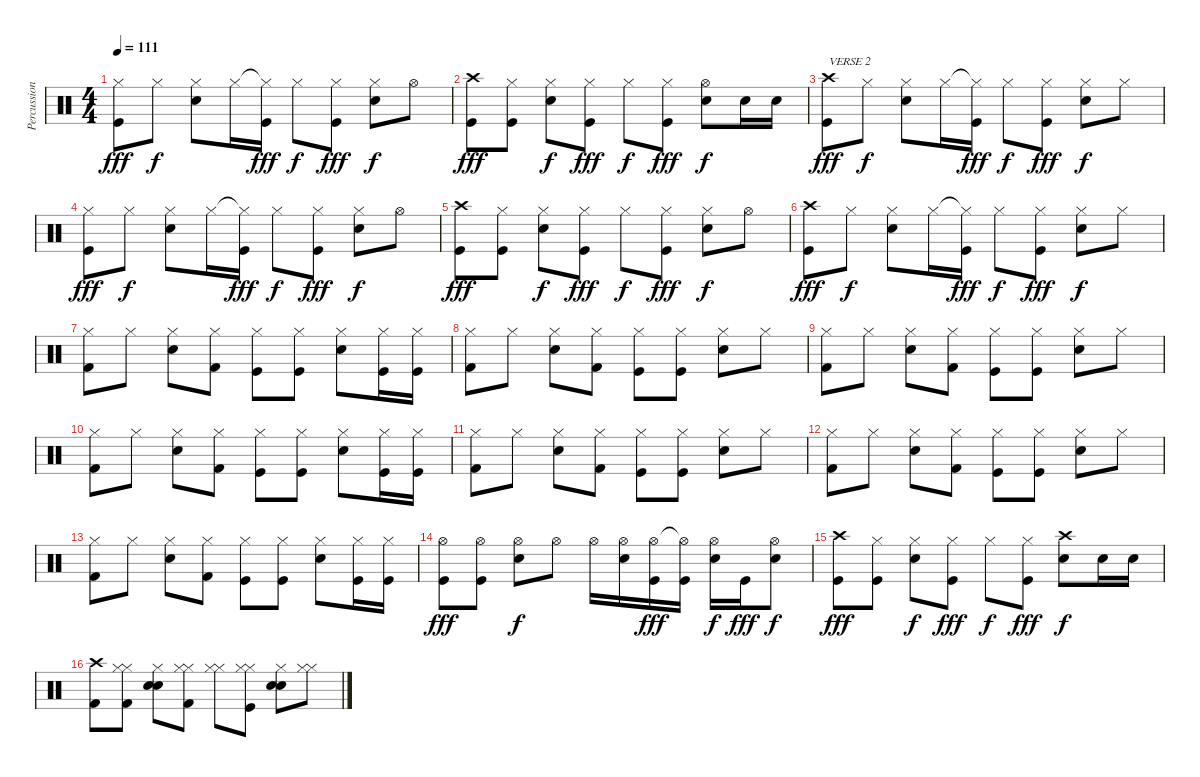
\track ("Percussion" "Percussion") {instrument percussion}
\staff {score}
\articulation defaults
\ts (4 4)
\tempo 111
\clef neutral
\ks c
("Hi-Hat (closed)" "Kick (hit)").8{dy fff} "Hi-Hat (closed)".8{dy f} ("Hi-Hat (closed)" "Snare (hit) 2").8 "Hi-Hat (closed)".16 ("Hi-Hat (closed)"{t} "Kick (hit)").16{dy fff} "Hi-Hat (closed)".8{dy f} ("Hi-Hat (closed)" "Kick (hit)").8{dy fff} ("Hi-Hat (closed)" "Snare (hit) 2").8{dy f} "Hi-Hat (open)".8 |
("Crash high (hit)" "Kick (hit)").8{dy fff} ("Hi-Hat (closed)" "Kick (hit)").8 ("Hi-Hat (closed)" "Snare (hit) 2").8{dy f} ("Hi-Hat (closed)" "Kick (hit)").8{dy fff} "Hi-Hat (closed)".8{dy f} ("Hi-Hat (closed)" "Kick (hit)").8{dy fff} ("Hi-Hat (open)" "Snare (hit) 2").8{dy f} "Snare (hit) 2".16 "Snare (hit) 2".16 |
("Crash high (hit)" "Kick (hit)").8{txt "VERSE 2" dy fff} "Hi-Hat (closed)".8{dy f} ("Hi-Hat (closed)" "Snare (hit) 2").8 "Hi-Hat (closed)".16 ("Hi-Hat (closed)"{t} "Kick (hit)").16{dy fff} "Hi-Hat (closed)".8{dy f} ("Hi-Hat (closed)" "Kick (hit)").8{dy fff} ("Hi-Hat (closed)" "Snare (hit) 2").8{dy f} "Hi-Hat (closed)".8 |
("Hi-Hat (closed)" "Kick (hit)").8{dy fff} "Hi-Hat (closed)".8{dy f} ("Hi-Hat (closed)" "Snare (hit) 2").8 "Hi-Hat (closed)".16 ("Hi-Hat (closed)"{t} "Kick (hit)").16{dy fff} "Hi-Hat (closed)".8{dy f} ("Hi-Hat (closed)" "Kick (hit)").8{dy fff} ("Hi-Hat (closed)" "Snare (hit) 2").8{dy f} "Hi-Hat (open)".8 |
("Crash high (hit)" "Kick (hit)").8{dy fff} ("Hi-Hat (closed)" "Kick (hit)").8 ("Hi-Hat (closed)" "Snare (hit) 2").8{dy f} ("Hi-Hat (closed)" "Kick (hit)").8{dy fff} "Hi-Hat (closed)".8{dy f} ("Hi-Hat (closed)" "Kick (hit)").8{dy fff} ("Hi-Hat (closed)" "Snare (hit) 2").8{dy f} "Hi-Hat (open)".8 |
("Crash high (hit)" "Kick (hit)").8{dy fff} "Hi-Hat (closed)".8{dy f} ("Hi-Hat (closed)" "Snare (hit) 2").8 "Hi-Hat (closed)".16 ("Hi-Hat (closed)"{t} "Kick (hit)").16{dy fff} "Hi-Hat (closed)".8{dy f} ("Hi-Hat (closed)" "Kick (hit)").8{dy fff} ("Hi-Hat (closed)" "Snare (hit) 2").8{dy f} "Hi-Hat (closed)".8 |
("Hi-Hat (closed)" "Kick (hit) 2").8 "Hi-Hat (closed)".8 ("Hi-Hat (closed)" "Electric Snare (hit)").8 ("Hi-Hat (closed)" "Kick (hit) 2").8 ("Hi-Hat (closed)" "Kick (hit)").8 ("Hi-Hat (closed)" "Kick (hit)").8 ("Hi-Hat (closed)" "Electric Snare (hit)").8 ("Hi-Hat (closed)" "Kick (hit)").16 ("Hi-Hat (closed)" "Kick (hit)").16 |
("Hi-Hat (closed)" "Kick (hit) 2").8 "Hi-Hat (closed)".8 ("Hi-Hat (closed)" "Electric Snare (hit)").8 ("Hi-Hat (closed)" "Kick (hit) 2").8 ("Hi-Hat (closed)" "Kick (hit)").8 ("Hi-Hat (closed)" "Kick (hit)").8 ("Hi-Hat (closed)" "Electric Snare (hit)").8 "Hi-Hat (closed)".8 |
("Hi-Hat (closed)" "Kick (hit) 2").8 "Hi-Hat (closed)".8 ("Hi-Hat (closed)" "Electric Snare (hit)").8 ("Hi-Hat (closed)" "Kick (hit) 2").8 ("Hi-Hat (closed)" "Kick (hit)").8 ("Hi-Hat (closed)" "Kick (hit)").8 ("Hi-Hat (closed)" "Electric Snare (hit)").8 "Hi-Hat (closed)".8 |
("Hi-Hat (closed)" "Kick (hit) 2").8 "Hi-Hat (closed)".8 ("Hi-Hat (closed)" "Electric Snare (hit)").8 ("Hi-Hat (closed)" "Kick (hit) 2").8 ("Hi-Hat (closed)" "Kick (hit)").8 ("Hi-Hat (closed)" "Kick (hit)").8 ("Hi-Hat (closed)" "Electric Snare (hit)").8 ("Hi-Hat (closed)" "Kick (hit)").16 ("Hi-Hat (closed)" "Kick (hit)").16 |
("Hi-Hat (closed)" "Kick (hit) 2").8 "Hi-Hat (closed)".8 ("Hi-Hat (closed)" "Electric Snare (hit)").8 ("Hi-Hat (closed)" "Kick (hit) 2").8 ("Hi-Hat (closed)" "Kick (hit)").8 ("Hi-Hat (closed)" "Kick (hit)").8 ("Hi-Hat (closed)" "Electric Snare (hit)").8 "Hi-Hat (closed)".8 |
("Hi-Hat (closed)" "Kick (hit) 2").8 "Hi-Hat (closed)".8 ("Hi-Hat (closed)" "Electric Snare (hit)").8 ("Hi-Hat (closed)" "Kick (hit) 2").8 ("Hi-Hat (closed)" "Kick (hit)").8 ("Hi-Hat (closed)" "Kick (hit)").8 ("Hi-Hat (closed)" "Electric Snare (hit)").8 "Hi-Hat (closed)".8 |
("Hi-Hat (closed)" "Kick (hit) 2").8 "Hi-Hat (closed)".8 ("Hi-Hat (closed)" "Electric Snare (hit)").8 ("Hi-Hat (closed)" "Kick (hit) 2").8 ("Hi-Hat (closed)" "Kick (hit)").8 ("Hi-Hat (closed)" "Kick (hit)").8 ("Hi-Hat (closed)" "Electric Snare (hit)").8 ("Hi-Hat (closed)" "Kick (hit)").16 ("Hi-Hat (closed)" "Kick (hit)").16 |
("Hi-Hat (open)" "Kick (hit)").8{dy fff} ("Hi-Hat (open)" "Kick (hit)").8 ("Hi-Hat (open)" "Snare (hit) 2").8{dy f} "Hi-Hat (open)".8 "Hi-Hat (open)".16 ("Hi-Hat (open)" "Snare (hit) 2").16 ("Hi-Hat (open)" "Kick (hit)").16{dy fff} ("Hi-Hat (open)"{t} "Kick (hit)").16 ("Hi-Hat (open)" "Snare (hit) 2").16{dy f} "Kick (hit)".16{dy fff} ("Hi-Hat (open)" "Snare (hit) 2").8{dy f} |
("Crash high (hit)" "Kick (hit)").8{dy fff} ("Hi-Hat (closed)" "Kick (hit)").8 ("Hi-Hat (closed)" "Snare (hit) 2").8{dy f} ("Hi-Hat (closed)" "Kick (hit)").8{dy fff} "Hi-Hat (closed)".8{dy f} ("Hi-Hat (closed)" "Kick (hit)").8{dy fff} ("Crash high (hit)" "Snare (hit) 2").8{dy f} "Snare (hit) 2".16 "Snare (hit) 2".16 |
("Crash high (hit)" "Kick (hit) 2").8 ("Hi-Hat (closed)" "Hi-Hat (closed)" "Kick (hit) 2").8 ("Hi-Hat (closed)" "Snare (hit) 2" "Electric Snare (hit)").8 ("Hi-Hat (closed)" "Hi-Hat (closed)" "Kick (hit) 2").8 ("Hi-Hat (closed)" "Hi-Hat (closed)").8 ("Hi-Hat (closed)" "Hi-Hat (closed)" "Kick (hit)").8 ("Hi-Hat (closed)" "Snare (hit) 2" "Electric Snare (hit)").8 ("Hi-Hat (closed)" "Hi-Hat (closed)").8
